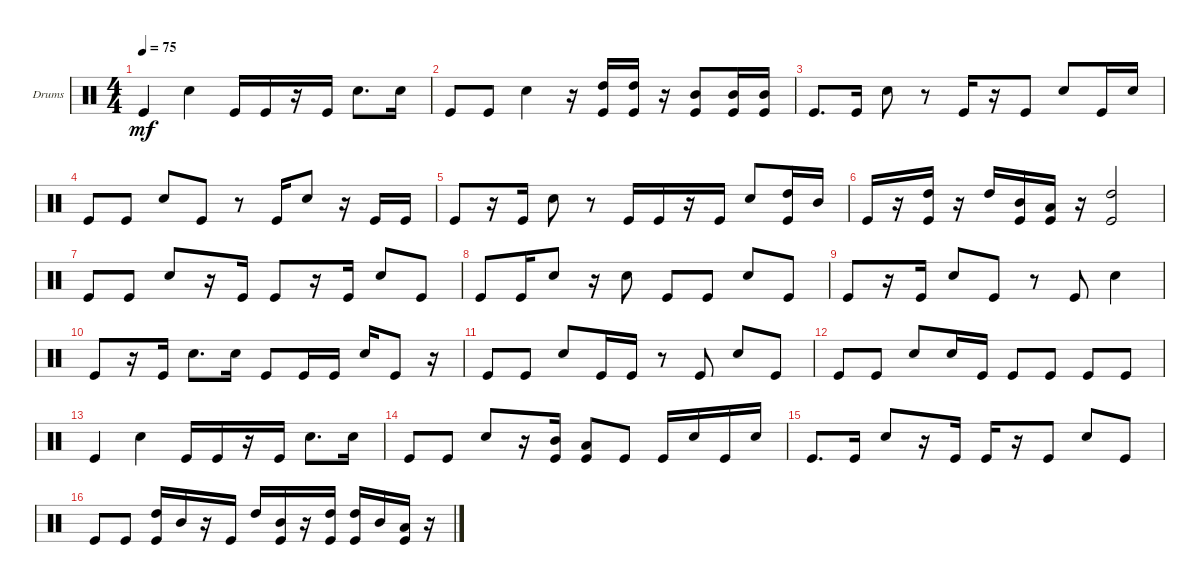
\defaultSystemsLayout 4
\bracketExtendMode groupsimilarinstruments
\firstSystemTrackNameOrientation horizontal
\otherSystemsTrackNameOrientation horizontal
\track ("Drumkit" "Drums") {instrument percussion}
\staff {score}
\articulation defaults
\ts (4 4)
\tempo 75
\clef neutral
\ks c "Kick (hit)".4{dy mf} "Snare (hit) 2".4 "Kick (hit)".16 "Kick (hit)".16
r.16 "Kick (hit)".16 "Snare (hit) 2".8{d} "Snare (hit) 2".16 |
"Kick (hit)".8 "Kick (hit)".8 "Snare (hit) 2".4 r.16 ("High Tom (hit)" "Kick (hit)").16 ("High Tom (hit)" "Kick (hit)").16 r.16 ("Mid Tom (hit)" "Kick (hit)").8 ("Mid Tom (hit)" "Kick (hit)").16 ("Kick (hit)" "Mid Tom (hit)").16 |
"Kick (hit)".8{d} "Kick (hit)".16 "Snare (hit) 2".8 r.8 "Kick (hit)".16 r.16 "Kick (hit)".8 "Snare (hit) 2".8 "Kick (hit)".16 "Snare (hit) 2".16 |
"Kick (hit)".8 "Kick (hit)".8 "Snare (hit) 2".8 "Kick (hit)".8 r.8 "Kick (hit)".16 "Snare (hit) 2".8 r.16 "Kick (hit)".16 "Kick (hit)".16 |
"Kick (hit)".8 r.16 "Kick (hit)".16 "Snare (hit) 2".8 r.8 "Kick (hit)".16 "Kick (hit)".16 r.16 "Kick (hit)".16 "Snare (hit) 2".8 ("Kick (hit)" "High Tom (hit)").16 "Mid Tom (hit)".16 |
"Kick (hit)".16 r.16 ("High Tom (hit)" "Kick (hit)").16 r.16 "High Tom (hit)".16 ("Mid Tom (hit)" "Kick (hit)").16 ("Low Tom (hit)" "Kick (hit)").16 r.16 ("High Tom (hit)" "Kick (hit)").2 |
"Kick (hit)".8 "Kick (hit)".8 "Snare (hit) 2".8 r.16 "Kick (hit)".16 "Kick (hit)".8 r.16 "Kick (hit)".16 "Snare (hit) 2".8 "Kick (hit)".8 |
"Kick (hit)".8 "Kick (hit)".16 "Snare (hit) 2".8 r.16 "Snare (hit) 2".8 "Kick (hit)".8 "Kick (hit)".8 "Snare (hit) 2".8 "Kick (hit)".8 |
"Kick (hit)".8 r.16 "Kick (hit)".16 "Snare (hit) 2".8 "Kick (hit)".8 r.8 "Kick (hit)".8 "Snare (hit) 2".4 |
"Kick (hit)".8 r.16 "Kick (hit)".16 "Snare (hit) 2".8{d} "Snare (hit) 2".16 "Kick (hit)".8 "Kick (hit)".16 "Kick (hit)".16 "Snare (hit) 2".16 "Kick (hit)".8 r.16 |
"Kick (hit)".8 "Kick (hit)".8 "Snare (hit) 2".8 "Kick (hit)".16 "Kick (hit)".16 r.8 "Kick (hit)".8 "Snare (hit) 2".8 "Kick (hit)".8 |
"Kick (hit)".8 "Kick (hit)".8 "Snare (hit) 2".8 "Snare (hit) 2".16 "Kick (hit)".16 "Kick (hit)".8 "Kick (hit)".8 "Kick (hit)".8 "Kick (hit)".8 |
"Kick (hit)".4 "Snare (hit) 2".4 "Kick (hit)".16 "Kick (hit)".16 r.16 "Kick (hit)".16 "Snare (hit) 2".8{d} "Snare (hit) 2".16 |
"Kick (hit)".8 "Kick (hit)".8 "Snare (hit) 2".8 r.16 ("Kick (hit)" "Mid Tom (hit)").16 ("Kick (hit)" "Low Tom (hit)").8 "Kick (hit)".8 "Kick (hit)".16 "Snare (hit) 2".16 "Kick (hit)".16 "Snare (hit) 2".16 |
"Kick (hit)".8{d} "Kick (hit)".16 "Snare (hit) 2".8 r.16 "Kick (hit)".16 "Kick (hit)".16 r.16 "Kick (hit)".8 "Snare (hit) 2".8 "Kick (hit)".8 |
"Kick (hit)".8 "Kick (hit)".8 ("High Tom (hit)" "Kick (hit)").16 "Mid Tom (hit)".16 r.16 "Kick (hit)".16 "High Tom (hit)".16 ("Mid Tom (hit)" "Kick (hit)").16 r.16 ("High Tom (hit)" "Kick (hit)").16 ("High Tom (hit)" "Kick (hit)").16 "Mid Tom (hit)".16 ("Low Tom (hit)" "Kick (hit)").16 r.16
